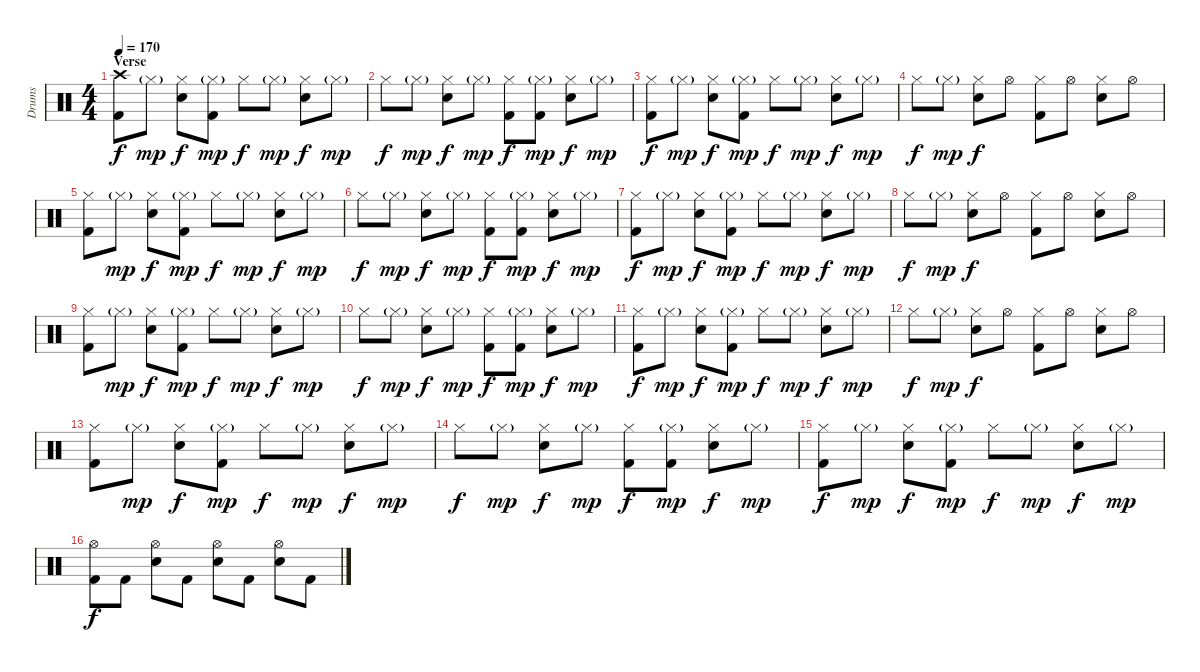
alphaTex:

\track ("Drums" "Drums") {instrument percussion}
\staff {score}
\articulation defaults
\ts (4 4)
\section ("" "Verse")
\tempo 170
\clef neutral
\ks c
("Crash high (hit)" "Kick (hit) 2").8{dy f} "Hi-Hat (closed)"{g}.8{dy mp} ("Hi-Hat (closed)" "Electric Snare (hit)").8{dy f} ("Hi-Hat (closed)"{g} "Kick (hit) 2").8{dy mp} "Hi-Hat (closed)".8{dy f} "Hi-Hat (closed)"{g}.8{dy mp} ("Hi-Hat (closed)" "Electric Snare (hit)").8{dy f} "Hi-Hat (closed)"{g}.8{dy mp} |
"Hi-Hat (closed)".8{dy f} "Hi-Hat (closed)"{g}.8{dy mp} ("Hi-Hat (closed)" "Electric Snare (hit)").8{dy f} "Hi-Hat (closed)"{g}.8{dy mp} ("Hi-Hat (closed)" "Kick (hit) 2").8{dy f} ("Hi-Hat (closed)"{g} "Kick (hit) 2").8{dy mp} ("Hi-Hat (closed)" "Electric Snare (hit)").8{dy f} "Hi-Hat (closed)"{g}.8{dy mp} |
("Hi-Hat (closed)" "Kick (hit) 2").8{dy f} "Hi-Hat (closed)"{g}.8{dy mp} ("Hi-Hat (closed)" "Electric Snare (hit)").8{dy f} ("Hi-Hat (closed)"{g} "Kick (hit) 2").8{dy mp} "Hi-Hat (closed)".8{dy f} "Hi-Hat (closed)"{g}.8{dy mp} ("Hi-Hat (closed)" "Electric Snare (hit)").8{dy f} "Hi-Hat (closed)"{g}.8{dy mp} |
"Hi-Hat (closed)".8{dy f} "Hi-Hat (closed)"{g}.8{dy mp} ("Hi-Hat (closed)" "Electric Snare (hit)").8{dy f} "Hi-Hat (open)".8 ("Hi-Hat (closed)" "Kick (hit) 2").8 "Hi-Hat (open)".8 ("Hi-Hat (closed)" "Electric Snare (hit)").8 "Hi-Hat (open)".8 |
("Hi-Hat (closed)" "Kick (hit) 2").8 "Hi-Hat (closed)"{g}.8{dy mp} ("Hi-Hat (closed)" "Electric Snare (hit)").8{dy f} ("Hi-Hat (closed)"{g} "Kick (hit) 2").8{dy mp} "Hi-Hat (closed)".8{dy f} "Hi-Hat (closed)"{g}.8{dy mp} ("Hi-Hat (closed)" "Electric Snare (hit)").8{dy f} "Hi-Hat (closed)"{g}.8{dy mp} |
"Hi-Hat (closed)".8{dy f} "Hi-Hat (closed)"{g}.8{dy mp} ("Hi-Hat (closed)" "Electric Snare (hit)").8{dy f} "Hi-Hat (closed)"{g}.8{dy mp} ("Hi-Hat (closed)" "Kick (hit) 2").8{dy f} ("Hi-Hat (closed)"{g} "Kick (hit) 2").8{dy mp} ("Hi-Hat (closed)" "Electric Snare (hit)").8{dy f} "Hi-Hat (closed)"{g}.8{dy mp} |
("Hi-Hat (closed)" "Kick (hit) 2").8{dy f} "Hi-Hat (closed)"{g}.8{dy mp} ("Hi-Hat (closed)" "Electric Snare (hit)").8{dy f} ("Hi-Hat (closed)"{g} "Kick (hit) 2").8{dy mp} "Hi-Hat (closed)".8{dy f} "Hi-Hat (closed)"{g}.8{dy mp} ("Hi-Hat (closed)" "Electric Snare (hit)").8{dy f} "Hi-Hat (closed)"{g}.8{dy mp} |
"Hi-Hat (closed)".8{dy f} "Hi-Hat (closed)"{g}.8{dy mp} ("Hi-Hat (closed)" "Electric Snare (hit)").8{dy f} "Hi-Hat (open)".8 ("Hi-Hat (closed)" "Kick (hit) 2").8 "Hi-Hat (open)".8 ("Hi-Hat (closed)" "Electric Snare (hit)").8 "Hi-Hat (open)".8 |
("Hi-Hat (closed)" "Kick (hit) 2").8 "Hi-Hat (closed)"{g}.8{dy mp} ("Hi-Hat (closed)" "Electric Snare (hit)").8{dy f} ("Hi-Hat (closed)"{g} "Kick (hit) 2").8{dy mp} "Hi-Hat (closed)".8{dy f} "Hi-Hat (closed)"{g}.8{dy mp} ("Hi-Hat (closed)" "Electric Snare (hit)").8{dy f} "Hi-Hat (closed)"{g}.8{dy mp} |
"Hi-Hat (closed)".8{dy f} "Hi-Hat (closed)"{g}.8{dy mp} ("Hi-Hat (closed)" "Electric Snare (hit)").8{dy f} "Hi-Hat (closed)"{g}.8{dy mp} ("Hi-Hat (closed)" "Kick (hit) 2").8{dy f} ("Hi-Hat (closed)"{g} "Kick (hit) 2").8{dy mp} ("Hi-Hat (closed)" "Electric Snare (hit)").8{dy f} "Hi-Hat (closed)"{g}.8{dy mp} |
("Hi-Hat (closed)" "Kick (hit) 2").8{dy f} "Hi-Hat (closed)"{g}.8{dy mp} ("Hi-Hat (closed)" "Electric Snare (hit)").8{dy f} ("Hi-Hat (closed)"{g} "Kick (hit) 2").8{dy mp} "Hi-Hat (closed)".8{dy f} "Hi-Hat (closed)"{g}.8{dy mp} ("Hi-Hat (closed)" "Electric Snare (hit)").8{dy f} "Hi-Hat (closed)"{g}.8{dy mp} |
"Hi-Hat (closed)".8{dy f} "Hi-Hat (closed)"{g}.8{dy mp} ("Hi-Hat (closed)" "Electric Snare (hit)").8{dy f} "Hi-Hat (open)".8 ("Hi-Hat (closed)" "Kick (hit) 2").8 "Hi-Hat (open)".8 ("Hi-Hat (closed)" "Electric Snare (hit)").8 "Hi-Hat (open)".8 |
("Hi-Hat (closed)" "Kick (hit) 2").8 "Hi-Hat (closed)"{g}.8{dy mp} ("Hi-Hat (closed)" "Electric Snare (hit)").8{dy f} ("Hi-Hat (closed)"{g} "Kick (hit) 2").8{dy mp} "Hi-Hat (closed)".8{dy f} "Hi-Hat (closed)"{g}.8{dy mp} ("Hi-Hat (closed)" "Electric Snare (hit)").8{dy f} "Hi-Hat (closed)"{g}.8{dy mp} |
"Hi-Hat (closed)".8{dy f} "Hi-Hat (closed)"{g}.8{dy mp} ("Hi-Hat (closed)" "Electric Snare (hit)").8{dy f} "Hi-Hat (closed)"{g}.8{dy mp} ("Hi-Hat (closed)" "Kick (hit) 2").8{dy f} ("Hi-Hat (closed)"{g} "Kick (hit) 2").8{dy mp} ("Hi-Hat (closed)" "Electric Snare (hit)").8{dy f} "Hi-Hat (closed)"{g}.8{dy mp} |
("Hi-Hat (closed)" "Kick (hit) 2").8{dy f} "Hi-Hat (closed)"{g}.8{dy mp} ("Hi-Hat (closed)" "Electric Snare (hit)").8{dy f} ("Hi-Hat (closed)"{g} "Kick (hit) 2").8{dy mp} "Hi-Hat (closed)".8{dy f} "Hi-Hat (closed)"{g}.8{dy mp} ("Hi-Hat (closed)" "Electric Snare (hit)").8{dy f} "Hi-Hat (closed)"{g}.8{dy mp} |
("Hi-Hat (open)" "Kick (hit) 2").8{dy f} "Kick (hit) 2".8 ("Hi-Hat (open)" "Electric Snare (hit)").8 "Kick (hit) 2".8 ("Hi-Hat (open)" "Electric Snare (hit)").8 "Kick (hit) 2".8 ("Hi-Hat (open)" "Electric Snare (hit)").8 "Kick (hit) 2".8
